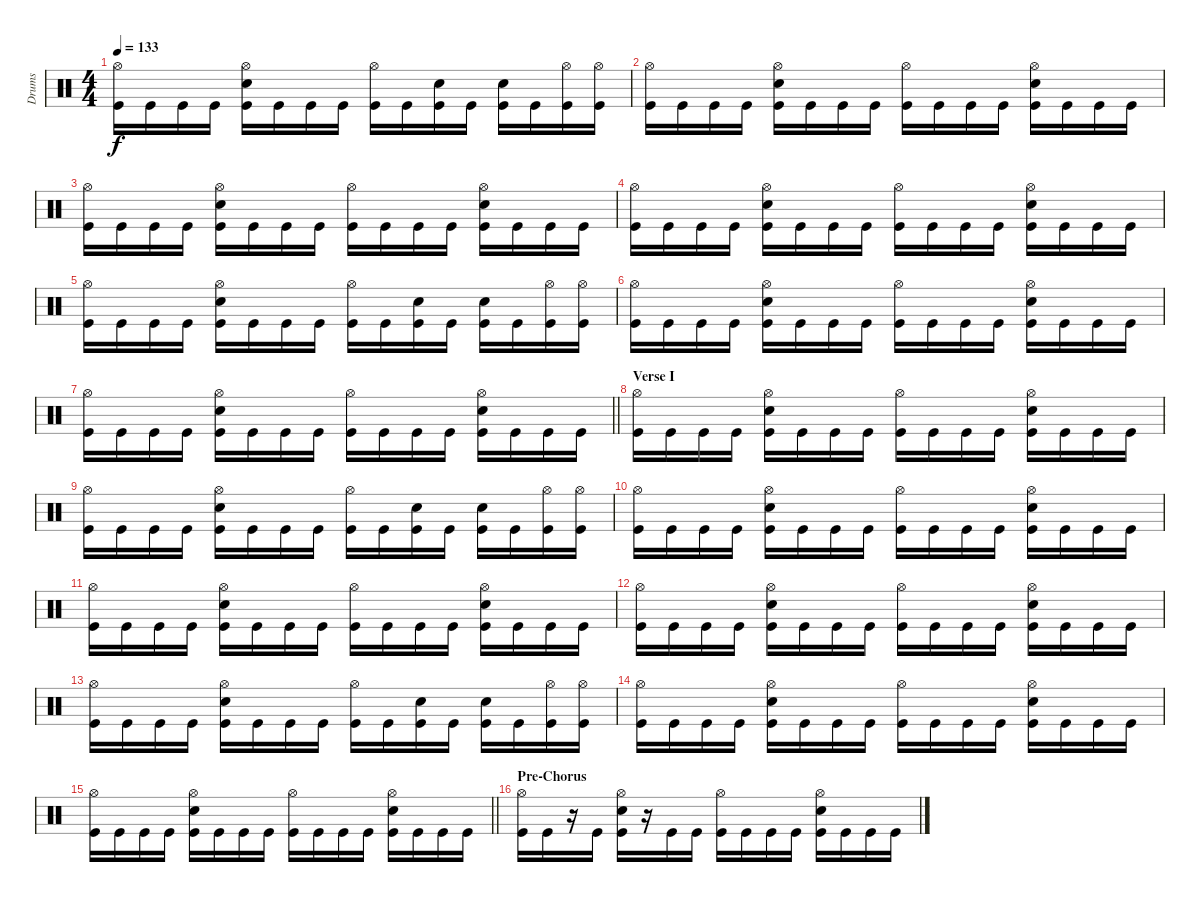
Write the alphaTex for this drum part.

\track ("Drums" "Drums") {instrument percussion}
\staff {score}
\articulation defaults
\ts (4 4)
\tempo 133
\clef neutral
\ks c
("Hi-Hat (open)" "Kick (hit)").16{dy f} "Kick (hit)".16 "Kick (hit)".16 "Kick (hit)".16 ("Hi-Hat (open)" "Electric Snare (hit)" "Kick (hit)").16 "Kick (hit)".16 "Kick (hit)".16 "Kick (hit)".16 ("Hi-Hat (open)" "Kick (hit)").16 "Kick (hit)".16 ("Electric Snare (hit)" "Kick (hit)").16 "Kick (hit)".16 ("Electric Snare (hit)" "Kick (hit)").16 "Kick (hit)".16 ("Hi-Hat (open)" "Kick (hit)").16 ("Hi-Hat (open)" "Kick (hit)").16 |
("Hi-Hat (open)" "Kick (hit)").16 "Kick (hit)".16 "Kick (hit)".16 "Kick (hit)".16 ("Hi-Hat (open)" "Electric Snare (hit)" "Kick (hit)").16 "Kick (hit)".16 "Kick (hit)".16 "Kick (hit)".16 ("Hi-Hat (open)" "Kick (hit)").16 "Kick (hit)".16 "Kick (hit)".16 "Kick (hit)".16 ("Hi-Hat (open)" "Electric Snare (hit)" "Kick (hit)").16 "Kick (hit)".16 "Kick (hit)".16 "Kick (hit)".16 |
("Hi-Hat (open)" "Kick (hit)").16 "Kick (hit)".16 "Kick (hit)".16 "Kick (hit)".16 ("Hi-Hat (open)" "Electric Snare (hit)" "Kick (hit)").16 "Kick (hit)".16 "Kick (hit)".16 "Kick (hit)".16 ("Hi-Hat (open)" "Kick (hit)").16 "Kick (hit)".16 "Kick (hit)".16 "Kick (hit)".16 ("Hi-Hat (open)" "Electric Snare (hit)" "Kick (hit)").16 "Kick (hit)".16 "Kick (hit)".16 "Kick (hit)".16 |
("Hi-Hat (open)" "Kick (hit)").16 "Kick (hit)".16 "Kick (hit)".16 "Kick (hit)".16 ("Hi-Hat (open)" "Electric Snare (hit)" "Kick (hit)").16 "Kick (hit)".16 "Kick (hit)".16 "Kick (hit)".16 ("Hi-Hat (open)" "Kick (hit)").16 "Kick (hit)".16 "Kick (hit)".16 "Kick (hit)".16 ("Hi-Hat (open)" "Electric Snare (hit)" "Kick (hit)").16 "Kick (hit)".16 "Kick (hit)".16 "Kick (hit)".16 |
("Hi-Hat (open)" "Kick (hit)").16 "Kick (hit)".16 "Kick (hit)".16 "Kick (hit)".16 ("Hi-Hat (open)" "Electric Snare (hit)" "Kick (hit)").16 "Kick (hit)".16 "Kick (hit)".16 "Kick (hit)".16 ("Hi-Hat (open)" "Kick (hit)").16 "Kick (hit)".16 ("Electric Snare (hit)" "Kick (hit)").16 "Kick (hit)".16 ("Electric Snare (hit)" "Kick (hit)").16 "Kick (hit)".16 ("Hi-Hat (open)" "Kick (hit)").16 ("Hi-Hat (open)" "Kick (hit)").16 |
("Hi-Hat (open)" "Kick (hit)").16 "Kick (hit)".16 "Kick (hit)".16 "Kick (hit)".16 ("Hi-Hat (open)" "Electric Snare (hit)" "Kick (hit)").16 "Kick (hit)".16 "Kick (hit)".16 "Kick (hit)".16 ("Hi-Hat (open)" "Kick (hit)").16 "Kick (hit)".16 "Kick (hit)".16 "Kick (hit)".16 ("Hi-Hat (open)" "Electric Snare (hit)" "Kick (hit)").16 "Kick (hit)".16 "Kick (hit)".16 "Kick (hit)".16 |
\barLineRight lightlight
("Hi-Hat (open)" "Kick (hit)").16 "Kick (hit)".16 "Kick (hit)".16 "Kick (hit)".16 ("Hi-Hat (open)" "Electric Snare (hit)" "Kick (hit)").16 "Kick (hit)".16 "Kick (hit)".16 "Kick (hit)".16 ("Hi-Hat (open)" "Kick (hit)").16 "Kick (hit)".16 "Kick (hit)".16 "Kick (hit)".16 ("Hi-Hat (open)" "Electric Snare (hit)" "Kick (hit)").16 "Kick (hit)".16 "Kick (hit)".16 "Kick (hit)".16 |
\section ("" "Verse I")
("Hi-Hat (open)" "Kick (hit)").16 "Kick (hit)".16 "Kick (hit)".16 "Kick (hit)".16 ("Hi-Hat (open)" "Electric Snare (hit)" "Kick (hit)").16 "Kick (hit)".16 "Kick (hit)".16 "Kick (hit)".16 ("Hi-Hat (open)" "Kick (hit)").16 "Kick (hit)".16 "Kick (hit)".16 "Kick (hit)".16 ("Hi-Hat (open)" "Electric Snare (hit)" "Kick (hit)").16 "Kick (hit)".16 "Kick (hit)".16 "Kick (hit)".16 |
("Hi-Hat (open)" "Kick (hit)").16 "Kick (hit)".16 "Kick (hit)".16 "Kick (hit)".16 ("Hi-Hat (open)" "Electric Snare (hit)" "Kick (hit)").16 "Kick (hit)".16 "Kick (hit)".16 "Kick (hit)".16 ("Hi-Hat (open)" "Kick (hit)").16 "Kick (hit)".16 ("Electric Snare (hit)" "Kick (hit)").16 "Kick (hit)".16 ("Electric Snare (hit)" "Kick (hit)").16 "Kick (hit)".16 ("Hi-Hat (open)" "Kick (hit)").16 ("Hi-Hat (open)" "Kick (hit)").16 |
("Hi-Hat (open)" "Kick (hit)").16 "Kick (hit)".16 "Kick (hit)".16 "Kick (hit)".16 ("Hi-Hat (open)" "Electric Snare (hit)" "Kick (hit)").16 "Kick (hit)".16 "Kick (hit)".16 "Kick (hit)".16 ("Hi-Hat (open)" "Kick (hit)").16 "Kick (hit)".16 "Kick (hit)".16 "Kick (hit)".16 ("Hi-Hat (open)" "Electric Snare (hit)" "Kick (hit)").16 "Kick (hit)".16 "Kick (hit)".16 "Kick (hit)".16 |
("Hi-Hat (open)" "Kick (hit)").16 "Kick (hit)".16 "Kick (hit)".16 "Kick (hit)".16 ("Hi-Hat (open)" "Electric Snare (hit)" "Kick (hit)").16 "Kick (hit)".16 "Kick (hit)".16 "Kick (hit)".16 ("Hi-Hat (open)" "Kick (hit)").16 "Kick (hit)".16 "Kick (hit)".16 "Kick (hit)".16 ("Hi-Hat (open)" "Electric Snare (hit)" "Kick (hit)").16 "Kick (hit)".16 "Kick (hit)".16 "Kick (hit)".16 |
("Hi-Hat (open)" "Kick (hit)").16 "Kick (hit)".16 "Kick (hit)".16 "Kick (hit)".16 ("Hi-Hat (open)" "Electric Snare (hit)" "Kick (hit)").16 "Kick (hit)".16 "Kick (hit)".16 "Kick (hit)".16 ("Hi-Hat (open)" "Kick (hit)").16 "Kick (hit)".16 "Kick (hit)".16 "Kick (hit)".16 ("Hi-Hat (open)" "Electric Snare (hit)" "Kick (hit)").16 "Kick (hit)".16 "Kick (hit)".16 "Kick (hit)".16 |
("Hi-Hat (open)" "Kick (hit)").16 "Kick (hit)".16 "Kick (hit)".16 "Kick (hit)".16 ("Hi-Hat (open)" "Electric Snare (hit)" "Kick (hit)").16 "Kick (hit)".16 "Kick (hit)".16 "Kick (hit)".16 ("Hi-Hat (open)" "Kick (hit)").16 "Kick (hit)".16 ("Electric Snare (hit)" "Kick (hit)").16 "Kick (hit)".16 ("Electric Snare (hit)" "Kick (hit)").16 "Kick (hit)".16 ("Hi-Hat (open)" "Kick (hit)").16 ("Hi-Hat (open)" "Kick (hit)").16 |
("Hi-Hat (open)" "Kick (hit)").16 "Kick (hit)".16 "Kick (hit)".16 "Kick (hit)".16 ("Hi-Hat (open)" "Electric Snare (hit)" "Kick (hit)").16 "Kick (hit)".16 "Kick (hit)".16 "Kick (hit)".16 ("Hi-Hat (open)" "Kick (hit)").16 "Kick (hit)".16 "Kick (hit)".16 "Kick (hit)".16 ("Hi-Hat (open)" "Electric Snare (hit)" "Kick (hit)").16 "Kick (hit)".16 "Kick (hit)".16 "Kick (hit)".16 |
\barLineRight lightlight
("Hi-Hat (open)" "Kick (hit)").16 "Kick (hit)".16 "Kick (hit)".16 "Kick (hit)".16 ("Hi-Hat (open)" "Electric Snare (hit)" "Kick (hit)").16 "Kick (hit)".16 "Kick (hit)".16 "Kick (hit)".16 ("Hi-Hat (open)" "Kick (hit)").16 "Kick (hit)".16 "Kick (hit)".16 "Kick (hit)".16 ("Hi-Hat (open)" "Electric Snare (hit)" "Kick (hit)").16 "Kick (hit)".16 "Kick (hit)".16 "Kick (hit)".16 |
\section ("" "Pre-Chorus")
("Hi-Hat (open)" "Kick (hit)").16 "Kick (hit)".16 r.16 "Kick (hit)".16 ("Hi-Hat (open)" "Electric Snare (hit)" "Kick (hit)").16 r.16 "Kick (hit)".16 "Kick (hit)".16 ("Hi-Hat (open)" "Kick (hit)").16 "Kick (hit)".16 "Kick (hit)".16 "Kick (hit)".16 ("Hi-Hat (open)" "Electric Snare (hit)" "Kick (hit)").16 "Kick (hit)".16 "Kick (hit)".16 "Kick (hit)".16
